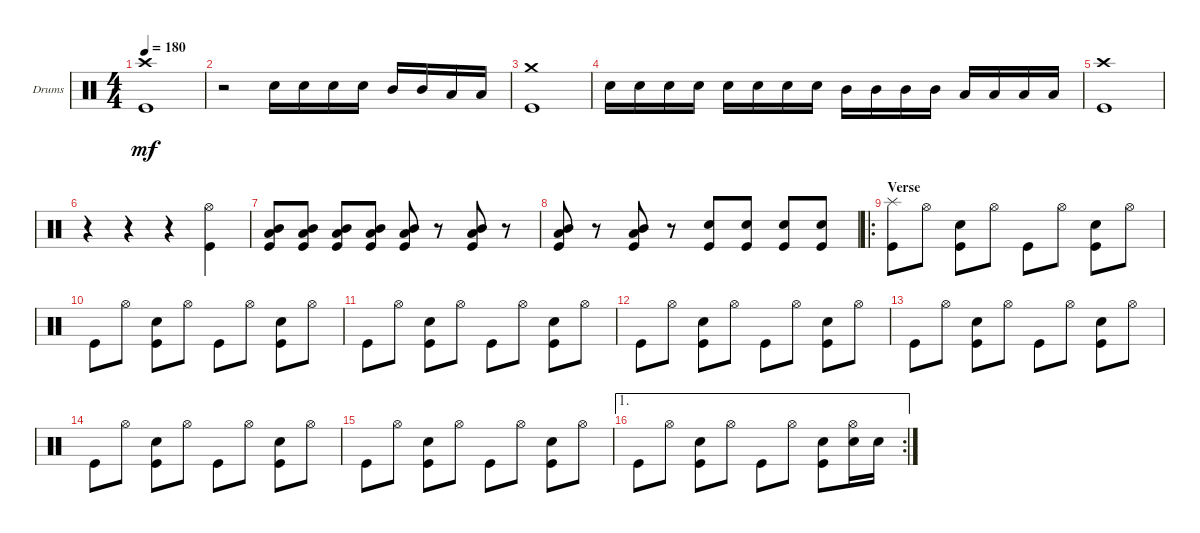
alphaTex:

\bracketExtendMode groupsimilarinstruments
\firstSystemTrackNameOrientation horizontal
\otherSystemsTrackNameOrientation horizontal
\track ("Drumkit" "Drums") {instrument percussion}
\staff {score}
\articulation defaults
\ts (4 4)
\tempo 180
\clef neutral
\ks c
("Kick (hit)" "Crash high (hit)").1{dy mf} |
r.2 "Snare (hit) 2".16 "Snare (hit) 2".16 "Snare (hit) 2".16 "Snare (hit) 2".16 "Mid Tom (hit)".16 "Mid Tom (hit)".16 "Low Tom (hit)".16 "Low Tom (hit)".16 |
("Kick (hit)" "Crash medium (hit)").1 |
"Snare (hit) 2".16 "Snare (hit) 2".16 "Snare (hit) 2".16 "Snare (hit) 2".16 "Snare (hit) 2".16 "Snare (hit) 2".16 "Snare (hit) 2".16 "Snare (hit) 2".16 "Mid Tom (hit)".16 "Mid Tom (hit)".16 "Mid Tom (hit)".16 "Mid Tom (hit)".16 "Low Tom (hit)".16 "Low Tom (hit)".16 "Low Tom (hit)".16 "Low Tom (hit)".16 |
("Kick (hit)" "Crash high (hit)").1 |
r.4 r.4 r.4 ("Kick (hit)" "Hi-Hat (open)").4 |
("Kick (hit)" "Mid Tom (hit)" "Low Tom (hit)").8 ("Kick (hit)" "Mid Tom (hit)" "Low Tom (hit)").8 ("Kick (hit)" "Mid Tom (hit)" "Low Tom (hit)").8 ("Kick (hit)" "Mid Tom (hit)" "Low Tom (hit)").8 ("Kick (hit)" "Mid Tom (hit)" "Low Tom (hit)").8 r.8 ("Kick (hit)" "Mid Tom (hit)" "Low Tom (hit)").8 r.8 |
("Kick (hit)" "Mid Tom (hit)" "Low Tom (hit)").8 r.8 ("Kick (hit)" "Mid Tom (hit)" "Low Tom (hit)").8 r.8 ("Kick (hit)" "Snare (hit) 2").8 ("Kick (hit)" "Snare (hit) 2").8 ("Kick (hit)" "Snare (hit) 2").8 ("Kick (hit)" "Snare (hit) 2").8 |
\ro
\section ("" "Verse")
("Kick (hit)" "Splash (hit)").8 "Hi-Hat (open)".8 ("Snare (hit) 2" "Kick (hit)").8 "Hi-Hat (open)".8 "Kick (hit)".8 "Hi-Hat (open)".8 ("Snare (hit) 2" "Kick (hit)").8 "Hi-Hat (open)".8 |
"Kick (hit)".8 "Hi-Hat (open)".8 ("Snare (hit) 2" "Kick (hit)").8 "Hi-Hat (open)".8 "Kick (hit)".8 "Hi-Hat (open)".8 ("Snare (hit) 2" "Kick (hit)").8 "Hi-Hat (open)".8 |
"Kick (hit)".8 "Hi-Hat (open)".8 ("Snare (hit) 2" "Kick (hit)").8 "Hi-Hat (open)".8 "Kick (hit)".8 "Hi-Hat (open)".8 ("Snare (hit) 2" "Kick (hit)").8 "Hi-Hat (open)".8 |
"Kick (hit)".8 "Hi-Hat (open)".8 ("Snare (hit) 2" "Kick (hit)").8 "Hi-Hat (open)".8 "Kick (hit)".8 "Hi-Hat (open)".8 ("Snare (hit) 2" "Kick (hit)").8 "Hi-Hat (open)".8 |
"Kick (hit)".8 "Hi-Hat (open)".8 ("Snare (hit) 2" "Kick (hit)").8 "Hi-Hat (open)".8 "Kick (hit)".8 "Hi-Hat (open)".8 ("Snare (hit) 2" "Kick (hit)").8 "Hi-Hat (open)".8 |
"Kick (hit)".8 "Hi-Hat (open)".8 ("Snare (hit) 2" "Kick (hit)").8 "Hi-Hat (open)".8 "Kick (hit)".8 "Hi-Hat (open)".8 ("Snare (hit) 2" "Kick (hit)").8 "Hi-Hat (open)".8 |
"Kick (hit)".8 "Hi-Hat (open)".8 ("Snare (hit) 2" "Kick (hit)").8 "Hi-Hat (open)".8 "Kick (hit)".8 "Hi-Hat (open)".8 ("Snare (hit) 2" "Kick (hit)").8 "Hi-Hat (open)".8 |
\ae 1
\rc 2 "Kick (hit)".8 "Hi-Hat (open)".8
("Snare (hit) 2" "Kick (hit)").8 "Hi-Hat (open)".8 "Kick (hit)".8 "Hi-Hat (open)".8 ("Snare (hit) 2" "Kick (hit)").8 ("Hi-Hat (open)" "Snare (hit) 2").16 "Snare (hit) 2".16
